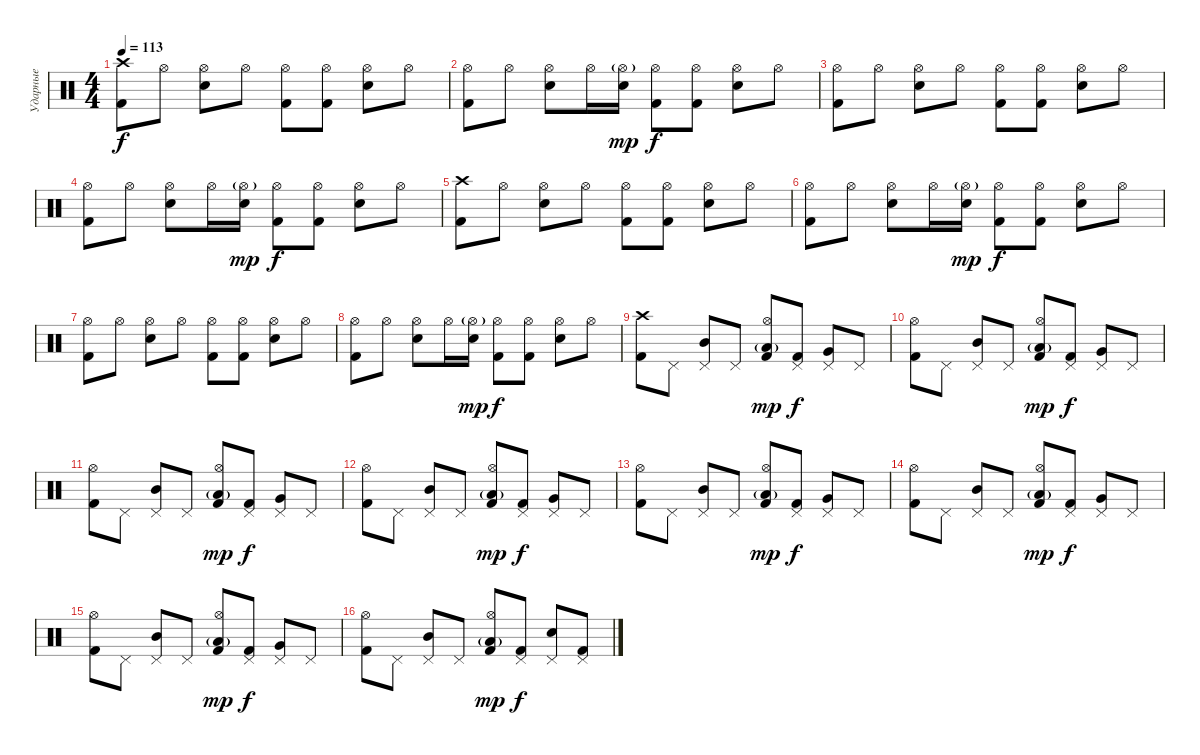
\track ("Ударные" "Ударные") {instrument percussion}
\staff {score}
\articulation defaults
\ts (4 4)
\tempo 113
\clef neutral
\ks c
("Crash high (hit)" "Kick (hit) 2").8{dy f} "Hi-Hat (open)".8 ("Hi-Hat (open)" "Snare (hit) 2").8 "Hi-Hat (open)".8 ("Hi-Hat (open)" "Kick (hit) 2").8 ("Hi-Hat (open)" "Kick (hit) 2").8 ("Hi-Hat (open)" "Snare (hit) 2").8 "Hi-Hat (open)".8 |
("Hi-Hat (open)" "Kick (hit) 2").8 "Hi-Hat (open)".8 ("Hi-Hat (open)" "Snare (hit) 2").8 "Hi-Hat (open)".16 ("Hi-Hat (open)"{g} "Snare (hit) 2").16{dy mp} ("Hi-Hat (open)" "Kick (hit) 2").8{dy f} ("Hi-Hat (open)" "Kick (hit) 2").8 ("Hi-Hat (open)" "Snare (hit) 2").8 "Hi-Hat (open)".8 |
("Hi-Hat (open)" "Kick (hit) 2").8 "Hi-Hat (open)".8 ("Hi-Hat (open)" "Snare (hit) 2").8 "Hi-Hat (open)".8 ("Hi-Hat (open)" "Kick (hit) 2").8 ("Hi-Hat (open)" "Kick (hit) 2").8 ("Hi-Hat (open)" "Snare (hit) 2").8 "Hi-Hat (open)".8 |
("Hi-Hat (open)" "Kick (hit) 2").8 "Hi-Hat (open)".8 ("Hi-Hat (open)" "Snare (hit) 2").8 "Hi-Hat (open)".16 ("Hi-Hat (open)"{g} "Snare (hit) 2").16{dy mp} ("Hi-Hat (open)" "Kick (hit) 2").8{dy f} ("Hi-Hat (open)" "Kick (hit) 2").8 ("Hi-Hat (open)" "Snare (hit) 2").8 "Hi-Hat (open)".8 |
("Crash high (hit)" "Kick (hit) 2").8 "Hi-Hat (open)".8 ("Hi-Hat (open)" "Snare (hit) 2").8 "Hi-Hat (open)".8 ("Hi-Hat (open)" "Kick (hit) 2").8 ("Hi-Hat (open)" "Kick (hit) 2").8 ("Hi-Hat (open)" "Snare (hit) 2").8 "Hi-Hat (open)".8 |
("Hi-Hat (open)" "Kick (hit) 2").8 "Hi-Hat (open)".8 ("Hi-Hat (open)" "Snare (hit) 2").8 "Hi-Hat (open)".16 ("Hi-Hat (open)"{g} "Snare (hit) 2").16{dy mp} ("Hi-Hat (open)" "Kick (hit) 2").8{dy f} ("Hi-Hat (open)" "Kick (hit) 2").8 ("Hi-Hat (open)" "Snare (hit) 2").8 "Hi-Hat (open)".8 |
("Hi-Hat (open)" "Kick (hit) 2").8 "Hi-Hat (open)".8 ("Hi-Hat (open)" "Snare (hit) 2").8 "Hi-Hat (open)".8 ("Hi-Hat (open)" "Kick (hit) 2").8 ("Hi-Hat (open)" "Kick (hit) 2").8 ("Hi-Hat (open)" "Snare (hit) 2").8 "Hi-Hat (open)".8 |
("Hi-Hat (open)" "Kick (hit) 2").8 "Hi-Hat (open)".8 ("Hi-Hat (open)" "Snare (hit) 2").8 "Hi-Hat (open)".16 ("Hi-Hat (open)"{g} "Snare (hit) 2").16{dy mp} ("Hi-Hat (open)" "Kick (hit) 2").8{dy f} ("Hi-Hat (open)" "Kick (hit) 2").8 ("Hi-Hat (open)" "Snare (hit) 2").8 "Hi-Hat (open)".8 |
("Crash high (hit)" "Kick (hit) 2").8 "Pedal Hi-Hat (hit)".8 ("Pedal Hi-Hat (hit)" "Mid Tom (hit)").8 "Pedal Hi-Hat (hit)".8 ("Hi-Hat (open)" "Low Tom (hit)"{g} "Kick (hit) 2").8{dy mp} ("Pedal Hi-Hat (hit)" "Kick (hit) 2").8{dy f} ("Pedal Hi-Hat (hit)" "Very Low Tom (hit)").8 "Pedal Hi-Hat (hit)".8 |
("Hi-Hat (open)" "Kick (hit) 2").8 "Pedal Hi-Hat (hit)".8 ("Pedal Hi-Hat (hit)" "Mid Tom (hit)").8 "Pedal Hi-Hat (hit)".8 ("Hi-Hat (open)" "Low Tom (hit)"{g} "Kick (hit) 2").8{dy mp} ("Pedal Hi-Hat (hit)" "Kick (hit) 2").8{dy f} ("Pedal Hi-Hat (hit)" "Very Low Tom (hit)").8 "Pedal Hi-Hat (hit)".8 |
("Hi-Hat (open)" "Kick (hit) 2").8 "Pedal Hi-Hat (hit)".8 ("Pedal Hi-Hat (hit)" "Mid Tom (hit)").8 "Pedal Hi-Hat (hit)".8 ("Hi-Hat (open)" "Low Tom (hit)"{g} "Kick (hit) 2").8{dy mp} ("Pedal Hi-Hat (hit)" "Kick (hit) 2").8{dy f} ("Pedal Hi-Hat (hit)" "Very Low Tom (hit)").8 "Pedal Hi-Hat (hit)".8 |
("Hi-Hat (open)" "Kick (hit) 2").8 "Pedal Hi-Hat (hit)".8 ("Pedal Hi-Hat (hit)" "Mid Tom (hit)").8 "Pedal Hi-Hat (hit)".8 ("Hi-Hat (open)" "Low Tom (hit)"{g} "Kick (hit) 2").8{dy mp} ("Pedal Hi-Hat (hit)" "Kick (hit) 2").8{dy f} ("Pedal Hi-Hat (hit)" "Very Low Tom (hit)").8 "Pedal Hi-Hat (hit)".8 |
("Hi-Hat (open)" "Kick (hit) 2").8 "Pedal Hi-Hat (hit)".8 ("Pedal Hi-Hat (hit)" "Mid Tom (hit)").8 "Pedal Hi-Hat (hit)".8 ("Hi-Hat (open)" "Low Tom (hit)"{g} "Kick (hit) 2").8{dy mp} ("Pedal Hi-Hat (hit)" "Kick (hit) 2").8{dy f} ("Pedal Hi-Hat (hit)" "Very Low Tom (hit)").8 "Pedal Hi-Hat (hit)".8 |
("Hi-Hat (open)" "Kick (hit) 2").8 "Pedal Hi-Hat (hit)".8 ("Pedal Hi-Hat (hit)" "Mid Tom (hit)").8 "Pedal Hi-Hat (hit)".8 ("Hi-Hat (open)" "Low Tom (hit)"{g} "Kick (hit) 2").8{dy mp} ("Pedal Hi-Hat (hit)" "Kick (hit) 2").8{dy f} ("Pedal Hi-Hat (hit)" "Very Low Tom (hit)").8 "Pedal Hi-Hat (hit)".8 |
("Hi-Hat (open)" "Kick (hit) 2").8 "Pedal Hi-Hat (hit)".8 ("Pedal Hi-Hat (hit)" "Mid Tom (hit)").8 "Pedal Hi-Hat (hit)".8 ("Hi-Hat (open)" "Low Tom (hit)"{g} "Kick (hit) 2").8{dy mp} ("Pedal Hi-Hat (hit)" "Kick (hit) 2").8{dy f} ("Pedal Hi-Hat (hit)" "Very Low Tom (hit)").8 "Pedal Hi-Hat (hit)".8 |
("Hi-Hat (open)" "Kick (hit) 2").8 "Pedal Hi-Hat (hit)".8 ("Pedal Hi-Hat (hit)" "Mid Tom (hit)").8 "Pedal Hi-Hat (hit)".8 ("Hi-Hat (open)" "Low Tom (hit)"{g} "Kick (hit) 2").8{dy mp} ("Pedal Hi-Hat (hit)" "Kick (hit) 2").8{dy f} ("Pedal Hi-Hat (hit)" "Snare (hit) 2").8 ("Pedal Hi-Hat (hit)" "Kick (hit) 2").8
